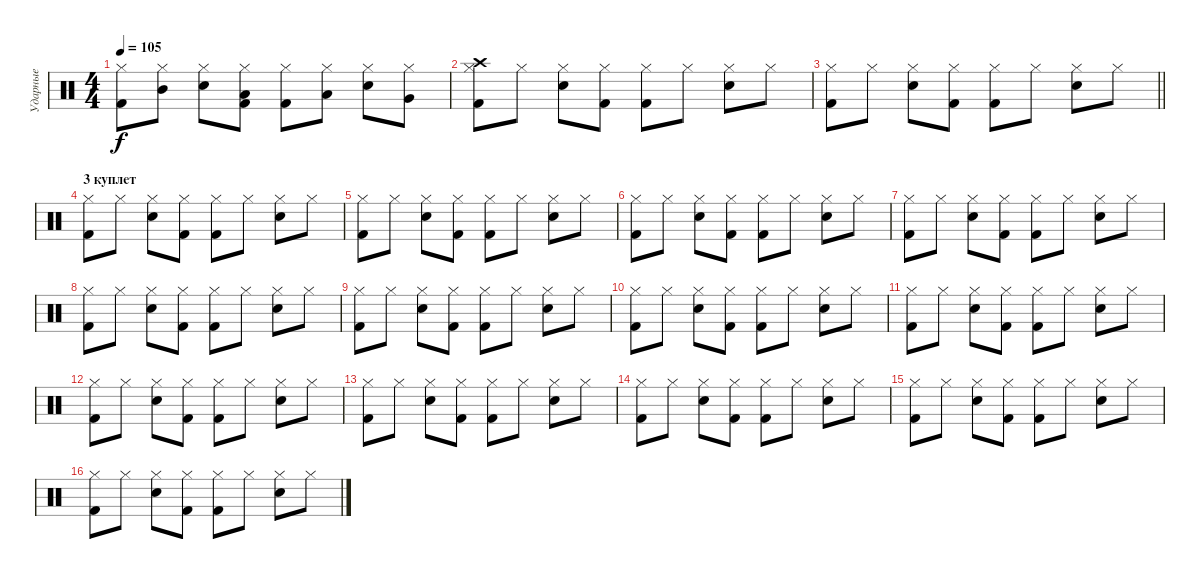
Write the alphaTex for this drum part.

\track ("Ударные" "Ударные") {instrument percussion}
\staff {score}
\articulation defaults
\ts (4 4)
\tempo 105
\clef neutral
\ks c
("Kick (hit) 2" "Hi-Hat (closed)").8{dy f} ("Hi-Hat (closed)" "Mid Tom (hit)").8 ("Hi-Hat (closed)" "Electric Snare (hit)").8 ("Kick (hit) 2" "Hi-Hat (closed)" "Low Floor Tom (hit)").8 ("Kick (hit) 2" "Hi-Hat (closed)").8 ("Hi-Hat (closed)" "Low Tom (hit)").8 ("Electric Snare (hit)" "Hi-Hat (closed)").8 ("Hi-Hat (closed)" "Very Low Tom (hit)").8 |
("Kick (hit) 2" "Hi-Hat (closed)" "Crash high (hit)").8 "Hi-Hat (closed)".8 ("Hi-Hat (closed)" "Electric Snare (hit)").8 ("Kick (hit) 2" "Hi-Hat (closed)").8 ("Kick (hit) 2" "Hi-Hat (closed)").8 "Hi-Hat (closed)".8 ("Electric Snare (hit)" "Hi-Hat (closed)").8 "Hi-Hat (closed)".8 |
\barLineRight lightlight
("Kick (hit) 2" "Hi-Hat (closed)").8 "Hi-Hat (closed)".8 ("Hi-Hat (closed)" "Electric Snare (hit)").8 ("Kick (hit) 2" "Hi-Hat (closed)").8 ("Kick (hit) 2" "Hi-Hat (closed)").8 "Hi-Hat (closed)".8 ("Electric Snare (hit)" "Hi-Hat (closed)").8 "Hi-Hat (closed)".8 |
\section ("" "3 куплет")
("Kick (hit) 2" "Hi-Hat (closed)").8 "Hi-Hat (closed)".8 ("Hi-Hat (closed)" "Electric Snare (hit)").8 ("Kick (hit) 2" "Hi-Hat (closed)").8 ("Kick (hit) 2" "Hi-Hat (closed)").8 "Hi-Hat (closed)".8 ("Electric Snare (hit)" "Hi-Hat (closed)").8 "Hi-Hat (closed)".8 |
("Kick (hit) 2" "Hi-Hat (closed)").8 "Hi-Hat (closed)".8 ("Hi-Hat (closed)" "Electric Snare (hit)").8 ("Kick (hit) 2" "Hi-Hat (closed)").8 ("Kick (hit) 2" "Hi-Hat (closed)").8 "Hi-Hat (closed)".8 ("Electric Snare (hit)" "Hi-Hat (closed)").8 "Hi-Hat (closed)".8 |
("Kick (hit) 2" "Hi-Hat (closed)").8 "Hi-Hat (closed)".8 ("Hi-Hat (closed)" "Electric Snare (hit)").8 ("Kick (hit) 2" "Hi-Hat (closed)").8 ("Kick (hit) 2" "Hi-Hat (closed)").8 "Hi-Hat (closed)".8 ("Electric Snare (hit)" "Hi-Hat (closed)").8 "Hi-Hat (closed)".8 |
("Kick (hit) 2" "Hi-Hat (closed)").8 "Hi-Hat (closed)".8 ("Hi-Hat (closed)" "Electric Snare (hit)").8 ("Kick (hit) 2" "Hi-Hat (closed)").8 ("Kick (hit) 2" "Hi-Hat (closed)").8 "Hi-Hat (closed)".8 ("Electric Snare (hit)" "Hi-Hat (closed)").8 "Hi-Hat (closed)".8 |
("Kick (hit) 2" "Hi-Hat (closed)").8 "Hi-Hat (closed)".8 ("Hi-Hat (closed)" "Electric Snare (hit)").8 ("Kick (hit) 2" "Hi-Hat (closed)").8 ("Kick (hit) 2" "Hi-Hat (closed)").8 "Hi-Hat (closed)".8 ("Electric Snare (hit)" "Hi-Hat (closed)").8 "Hi-Hat (closed)".8 |
("Kick (hit) 2" "Hi-Hat (closed)").8 "Hi-Hat (closed)".8 ("Hi-Hat (closed)" "Electric Snare (hit)").8 ("Kick (hit) 2" "Hi-Hat (closed)").8 ("Kick (hit) 2" "Hi-Hat (closed)").8 "Hi-Hat (closed)".8 ("Electric Snare (hit)" "Hi-Hat (closed)").8 "Hi-Hat (closed)".8 |
("Kick (hit) 2" "Hi-Hat (closed)").8 "Hi-Hat (closed)".8 ("Hi-Hat (closed)" "Electric Snare (hit)").8 ("Kick (hit) 2" "Hi-Hat (closed)").8 ("Kick (hit) 2" "Hi-Hat (closed)").8 "Hi-Hat (closed)".8 ("Electric Snare (hit)" "Hi-Hat (closed)").8 "Hi-Hat (closed)".8 |
("Kick (hit) 2" "Hi-Hat (closed)").8 "Hi-Hat (closed)".8 ("Hi-Hat (closed)" "Electric Snare (hit)").8 ("Kick (hit) 2" "Hi-Hat (closed)").8 ("Kick (hit) 2" "Hi-Hat (closed)").8 "Hi-Hat (closed)".8 ("Electric Snare (hit)" "Hi-Hat (closed)").8 "Hi-Hat (closed)".8 |
("Kick (hit) 2" "Hi-Hat (closed)").8 "Hi-Hat (closed)".8 ("Hi-Hat (closed)" "Electric Snare (hit)").8 ("Kick (hit) 2" "Hi-Hat (closed)").8 ("Kick (hit) 2" "Hi-Hat (closed)").8 "Hi-Hat (closed)".8 ("Electric Snare (hit)" "Hi-Hat (closed)").8 "Hi-Hat (closed)".8 |
("Kick (hit) 2" "Hi-Hat (closed)").8 "Hi-Hat (closed)".8 ("Hi-Hat (closed)" "Electric Snare (hit)").8 ("Kick (hit) 2" "Hi-Hat (closed)").8 ("Kick (hit) 2" "Hi-Hat (closed)").8 "Hi-Hat (closed)".8 ("Electric Snare (hit)" "Hi-Hat (closed)").8 "Hi-Hat (closed)".8 |
("Kick (hit) 2" "Hi-Hat (closed)").8 "Hi-Hat (closed)".8 ("Hi-Hat (closed)" "Electric Snare (hit)").8 ("Kick (hit) 2" "Hi-Hat (closed)").8 ("Kick (hit) 2" "Hi-Hat (closed)").8 "Hi-Hat (closed)".8 ("Electric Snare (hit)" "Hi-Hat (closed)").8 "Hi-Hat (closed)".8 |
("Kick (hit) 2" "Hi-Hat (closed)").8 "Hi-Hat (closed)".8 ("Hi-Hat (closed)" "Electric Snare (hit)").8 ("Kick (hit) 2" "Hi-Hat (closed)").8 ("Kick (hit) 2" "Hi-Hat (closed)").8 "Hi-Hat (closed)".8 ("Electric Snare (hit)" "Hi-Hat (closed)").8 "Hi-Hat (closed)".8 |
("Kick (hit) 2" "Hi-Hat (closed)").8 "Hi-Hat (closed)".8 ("Hi-Hat (closed)" "Electric Snare (hit)").8 ("Kick (hit) 2" "Hi-Hat (closed)").8 ("Kick (hit) 2" "Hi-Hat (closed)").8 "Hi-Hat (closed)".8 ("Electric Snare (hit)" "Hi-Hat (closed)").8 "Hi-Hat (closed)".8
